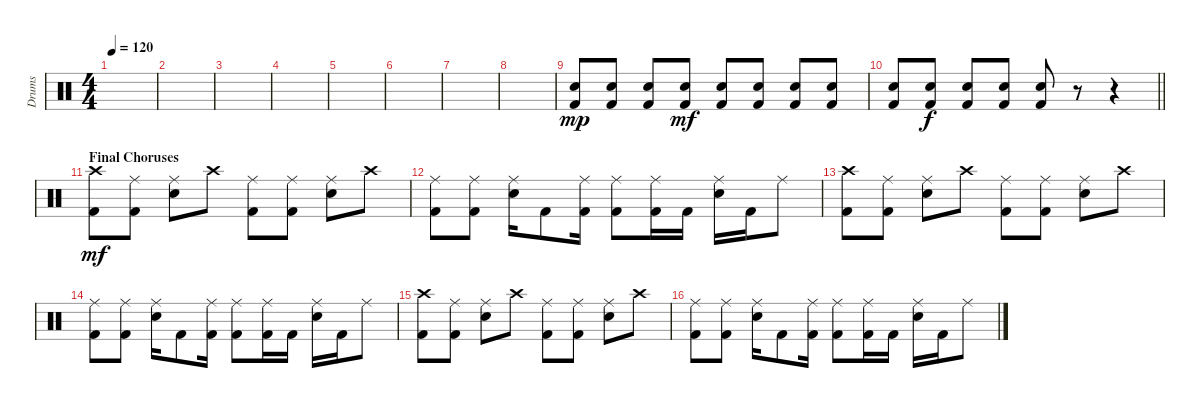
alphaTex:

\track ("Drums" "Drums") {instrument percussion}
\staff {score}
\articulation defaults
\ts (4 4)
\tempo 120
\clef neutral
\ks c
|
|
|
|
|
|
|
|
("Electric Snare (hit)" "Kick (hit) 2").8{dy mp} ("Electric Snare (hit)" "Kick (hit) 2").8 ("Electric Snare (hit)" "Kick (hit) 2").8 ("Electric Snare (hit)" "Kick (hit) 2").8{dy mf} ("Electric Snare (hit)" "Kick (hit) 2").8 ("Electric Snare (hit)" "Kick (hit) 2").8 ("Electric Snare (hit)" "Kick (hit) 2").8 ("Electric Snare (hit)" "Kick (hit) 2").8 |
\barLineRight lightlight
("Electric Snare (hit)" "Kick (hit) 2").8 ("Electric Snare (hit)" "Kick (hit) 2").8{dy f} ("Electric Snare (hit)" "Kick (hit) 2").8 ("Electric Snare (hit)" "Kick (hit) 2").8 ("Electric Snare (hit)" "Kick (hit) 2").8 r.8 r.4 |
\section ("" "Final Choruses")
("Crash high (hit)" "Kick (hit) 2").8{dy mf} ("Ride (middle)" "Kick (hit) 2").8 ("Ride (middle)" "Electric Snare (hit)").8 "Crash high (hit)".8 ("Ride (middle)" "Kick (hit) 2").8 ("Ride (middle)" "Kick (hit) 2").8 ("Ride (middle)" "Electric Snare (hit)").8 "Crash high (hit)".8 |
("Ride (middle)" "Kick (hit) 2").8 ("Ride (middle)" "Kick (hit) 2").8 ("Ride (middle)" "Electric Snare (hit)").16 "Kick (hit) 2".8 ("Ride (middle)" "Kick (hit) 2").16 ("Ride (middle)" "Kick (hit) 2").8 ("Ride (middle)" "Kick (hit) 2").16 "Kick (hit) 2".16 ("Ride (middle)" "Electric Snare (hit)").16 "Kick (hit) 2".16 "Ride (middle)".8 |
("Crash high (hit)" "Kick (hit) 2").8 ("Ride (middle)" "Kick (hit) 2").8 ("Ride (middle)" "Electric Snare (hit)").8 "Crash high (hit)".8 ("Ride (middle)" "Kick (hit) 2").8 ("Ride (middle)" "Kick (hit) 2").8 ("Ride (middle)" "Electric Snare (hit)").8 "Crash high (hit)".8 |
("Ride (middle)" "Kick (hit) 2").8 ("Ride (middle)" "Kick (hit) 2").8 ("Ride (middle)" "Electric Snare (hit)").16 "Kick (hit) 2".8 ("Ride (middle)" "Kick (hit) 2").16 ("Ride (middle)" "Kick (hit) 2").8 ("Ride (middle)" "Kick (hit) 2").16 "Kick (hit) 2".16 ("Ride (middle)" "Electric Snare (hit)").16 "Kick (hit) 2".16 "Ride (middle)".8 |
("Crash high (hit)" "Kick (hit) 2").8 ("Ride (middle)" "Kick (hit) 2").8 ("Ride (middle)" "Electric Snare (hit)").8 "Crash high (hit)".8 ("Ride (middle)" "Kick (hit) 2").8 ("Ride (middle)" "Kick (hit) 2").8 ("Ride (middle)" "Electric Snare (hit)").8 "Crash high (hit)".8 |
("Ride (middle)" "Kick (hit) 2").8 ("Ride (middle)" "Kick (hit) 2").8 ("Ride (middle)" "Electric Snare (hit)").16 "Kick (hit) 2".8 ("Ride (middle)" "Kick (hit) 2").16 ("Ride (middle)" "Kick (hit) 2").8 ("Ride (middle)" "Kick (hit) 2").16 "Kick (hit) 2".16 ("Ride (middle)" "Electric Snare (hit)").16 "Kick (hit) 2".16 "Ride (middle)".8
